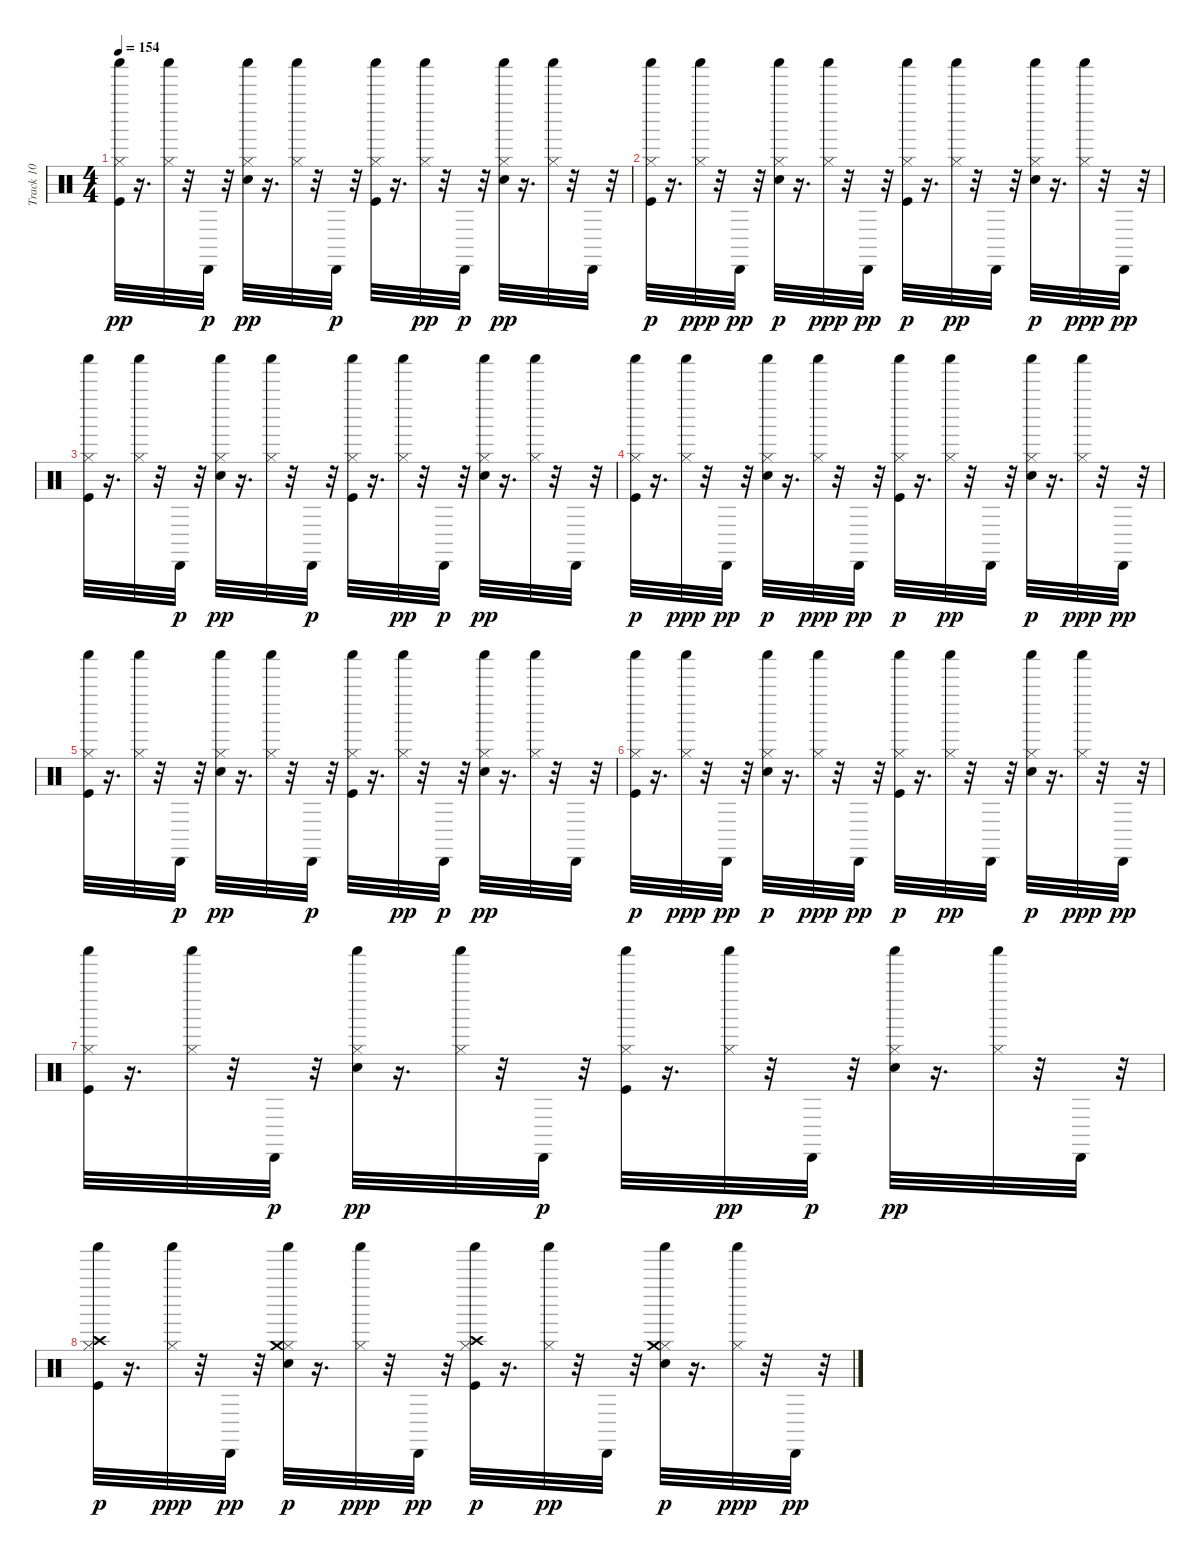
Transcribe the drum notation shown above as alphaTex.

\track ("Track 10" "Track 10") {instrument percussion}
\staff {score}
\articulation defaults
\ts (4 4)
\tempo 154
\clef neutral
\ks c
("Kick (hit)" "Hi-Hat (closed)" "Shaker (hit)").32{dy pp} r.16{d} ("Hi-Hat (closed)" "Shaker (hit)").32 r.32 "Cabasa (hit)".32{dy p} r.32 ("Electric Snare (hit)" "Hi-Hat (closed)" "Shaker (hit)").32{dy pp} r.16{d} ("Hi-Hat (closed)" "Shaker (hit)").32 r.32 "Cabasa (hit)".32{dy p} r.32 ("Kick (hit)" "Hi-Hat (closed)" "Shaker (hit)").32 r.16{d} ("Hi-Hat (closed)" "Shaker (hit)").32{dy pp} r.32 "Cabasa (hit)".32{dy p} r.32 ("Electric Snare (hit)" "Hi-Hat (closed)" "Shaker (hit)").32{dy pp} r.16{d} ("Hi-Hat (closed)" "Shaker (hit)").32 r.32 "Cabasa (hit)".32 r.32 |
("Kick (hit)" "Hi-Hat (closed)" "Shaker (hit)").32{dy p} r.16{d} ("Hi-Hat (closed)" "Shaker (hit)").32{dy ppp} r.32 "Cabasa (hit)".32{dy pp} r.32 ("Electric Snare (hit)" "Hi-Hat (closed)" "Shaker (hit)").32{dy p} r.16{d} ("Hi-Hat (closed)" "Shaker (hit)").32{dy ppp} r.32 "Cabasa (hit)".32{dy pp} r.32 ("Kick (hit)" "Hi-Hat (closed)" "Shaker (hit)").32{dy p} r.16{d} ("Hi-Hat (closed)" "Shaker (hit)").32{dy pp} r.32 "Cabasa (hit)".32 r.32 ("Electric Snare (hit)" "Hi-Hat (closed)" "Shaker (hit)").32{dy p} r.16{d} ("Hi-Hat (closed)" "Shaker (hit)").32{dy ppp} r.32 "Cabasa (hit)".32{dy pp} r.32 |
("Kick (hit)" "Hi-Hat (closed)" "Shaker (hit)").32 r.16{d} ("Hi-Hat (closed)" "Shaker (hit)").32 r.32 "Cabasa (hit)".32{dy p} r.32 ("Electric Snare (hit)" "Hi-Hat (closed)" "Shaker (hit)").32{dy pp} r.16{d} ("Hi-Hat (closed)" "Shaker (hit)").32 r.32 "Cabasa (hit)".32{dy p} r.32 ("Kick (hit)" "Hi-Hat (closed)" "Shaker (hit)").32 r.16{d} ("Hi-Hat (closed)" "Shaker (hit)").32{dy pp} r.32 "Cabasa (hit)".32{dy p} r.32 ("Electric Snare (hit)" "Hi-Hat (closed)" "Shaker (hit)").32{dy pp} r.16{d} ("Hi-Hat (closed)" "Shaker (hit)").32 r.32 "Cabasa (hit)".32 r.32 |
("Kick (hit)" "Hi-Hat (closed)" "Shaker (hit)").32{dy p} r.16{d} ("Hi-Hat (closed)" "Shaker (hit)").32{dy ppp} r.32 "Cabasa (hit)".32{dy pp} r.32 ("Electric Snare (hit)" "Hi-Hat (closed)" "Shaker (hit)").32{dy p} r.16{d} ("Hi-Hat (closed)" "Shaker (hit)").32{dy ppp} r.32 "Cabasa (hit)".32{dy pp} r.32 ("Kick (hit)" "Hi-Hat (closed)" "Shaker (hit)").32{dy p} r.16{d} ("Hi-Hat (closed)" "Shaker (hit)").32{dy pp} r.32 "Cabasa (hit)".32 r.32 ("Electric Snare (hit)" "Hi-Hat (closed)" "Shaker (hit)").32{dy p} r.16{d} ("Hi-Hat (closed)" "Shaker (hit)").32{dy ppp} r.32 "Cabasa (hit)".32{dy pp} r.32 |
("Kick (hit)" "Hi-Hat (closed)" "Shaker (hit)").32 r.16{d} ("Hi-Hat (closed)" "Shaker (hit)").32 r.32 "Cabasa (hit)".32{dy p} r.32 ("Electric Snare (hit)" "Hi-Hat (closed)" "Shaker (hit)").32{dy pp} r.16{d} ("Hi-Hat (closed)" "Shaker (hit)").32 r.32 "Cabasa (hit)".32{dy p} r.32 ("Kick (hit)" "Hi-Hat (closed)" "Shaker (hit)").32 r.16{d} ("Hi-Hat (closed)" "Shaker (hit)").32{dy pp} r.32 "Cabasa (hit)".32{dy p} r.32 ("Electric Snare (hit)" "Hi-Hat (closed)" "Shaker (hit)").32{dy pp} r.16{d} ("Hi-Hat (closed)" "Shaker (hit)").32 r.32 "Cabasa (hit)".32 r.32 |
("Kick (hit)" "Hi-Hat (closed)" "Shaker (hit)").32{dy p} r.16{d} ("Hi-Hat (closed)" "Shaker (hit)").32{dy ppp} r.32 "Cabasa (hit)".32{dy pp} r.32 ("Electric Snare (hit)" "Hi-Hat (closed)" "Shaker (hit)").32{dy p} r.16{d} ("Hi-Hat (closed)" "Shaker (hit)").32{dy ppp} r.32 "Cabasa (hit)".32{dy pp} r.32 ("Kick (hit)" "Hi-Hat (closed)" "Shaker (hit)").32{dy p} r.16{d} ("Hi-Hat (closed)" "Shaker (hit)").32{dy pp} r.32 "Cabasa (hit)".32 r.32 ("Electric Snare (hit)" "Hi-Hat (closed)" "Shaker (hit)").32{dy p} r.16{d} ("Hi-Hat (closed)" "Shaker (hit)").32{dy ppp} r.32 "Cabasa (hit)".32{dy pp} r.32 |
("Kick (hit)" "Hi-Hat (closed)" "Shaker (hit)").32 r.16{d} ("Hi-Hat (closed)" "Shaker (hit)").32 r.32 "Cabasa (hit)".32{dy p} r.32 ("Electric Snare (hit)" "Hi-Hat (closed)" "Shaker (hit)").32{dy pp} r.16{d} ("Hi-Hat (closed)" "Shaker (hit)").32 r.32 "Cabasa (hit)".32{dy p} r.32 ("Kick (hit)" "Hi-Hat (closed)" "Shaker (hit)").32 r.16{d} ("Hi-Hat (closed)" "Shaker (hit)").32{dy pp} r.32 "Cabasa (hit)".32{dy p} r.32 ("Electric Snare (hit)" "Hi-Hat (closed)" "Shaker (hit)").32{dy pp} r.16{d} ("Hi-Hat (closed)" "Shaker (hit)").32 r.32 "Cabasa (hit)".32 r.32 |
("Kick (hit)" "Hi-Hat (closed)" "Crash high (hit)" "Shaker (hit)").32{dy p} r.16{d} ("Hi-Hat (closed)" "Shaker (hit)").32{dy ppp} r.32 "Cabasa (hit)".32{dy pp} r.32 ("Electric Snare (hit)" "Hi-Hat (closed)" "Crash medium (hit)" "Shaker (hit)").32{dy p} r.16{d} ("Hi-Hat (closed)" "Shaker (hit)").32{dy ppp} r.32 "Cabasa (hit)".32{dy pp} r.32 ("Kick (hit)" "Hi-Hat (closed)" "Crash high (hit)" "Shaker (hit)").32{dy p} r.16{d} ("Hi-Hat (closed)" "Shaker (hit)").32{dy pp} r.32 "Cabasa (hit)".32 r.32 ("Electric Snare (hit)" "Hi-Hat (closed)" "Crash medium (hit)" "Shaker (hit)").32{dy p} r.16{d} ("Hi-Hat (closed)" "Shaker (hit)").32{dy ppp} r.32 "Cabasa (hit)".32{dy pp} r.32
